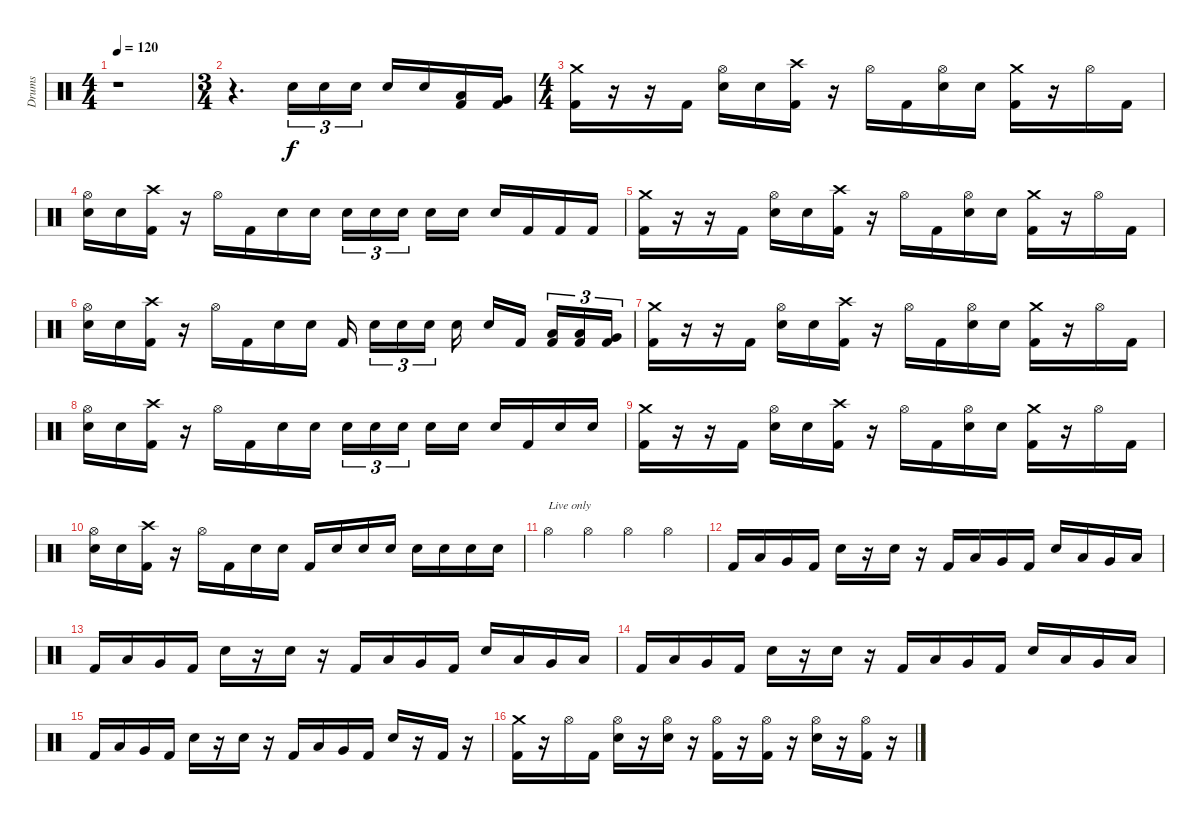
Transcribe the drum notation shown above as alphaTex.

\track ("Drums" "Drums") {instrument percussion}
\staff {score}
\articulation defaults
\ts (4 4)
\tempo 120
\clef neutral
\ks c
r.1{dy f} |
\ts (3 4)
r.4{d} "Electric Snare (hit)".16{tu (3 2)} "Electric Snare (hit)".16{tu (3 2)} "Electric Snare (hit)".16{tu (3 2)} "Electric Snare (hit)".16 "Electric Snare (hit)".16 ("Low Tom (hit)" "Kick (hit) 2").16 ("Very Low Tom (hit)" "Kick (hit) 2").16 |
\ts (4 4)
("Crash medium (hit)" "Kick (hit) 2").16 r.16 r.16 "Kick (hit) 2".16 ("Hi-Hat (open)" "Electric Snare (hit)").16 "Electric Snare (hit)".16 ("Crash high (hit)" "Kick (hit) 2").16 r.16 "Hi-Hat (open)".16 "Kick (hit) 2".16 ("Hi-Hat (open)" "Electric Snare (hit)").16 "Electric Snare (hit)".16 ("Crash medium (hit)" "Kick (hit) 2").16 r.16 "Hi-Hat (open)".16 "Kick (hit) 2".16 |
("Hi-Hat (open)" "Electric Snare (hit)").16 "Electric Snare (hit)".16 ("Crash high (hit)" "Kick (hit) 2").16 r.16 "Hi-Hat (open)".16 "Kick (hit) 2".16 "Electric Snare (hit)".16 "Electric Snare (hit)".16 "Electric Snare (hit)".16{tu (3 2)} "Electric Snare (hit)".16{tu (3 2)} "Electric Snare (hit)".16{tu (3 2)} "Electric Snare (hit)".16 "Electric Snare (hit)".16 "Electric Snare (hit)".16 "Kick (hit) 2".16 "Kick (hit) 2".16 "Kick (hit) 2".16 |
("Crash medium (hit)" "Kick (hit) 2").16 r.16 r.16 "Kick (hit) 2".16 ("Hi-Hat (open)" "Electric Snare (hit)").16 "Electric Snare (hit)".16 ("Crash high (hit)" "Kick (hit) 2").16 r.16 "Hi-Hat (open)".16 "Kick (hit) 2".16 ("Hi-Hat (open)" "Electric Snare (hit)").16 "Electric Snare (hit)".16 ("Crash medium (hit)" "Kick (hit) 2").16 r.16 "Hi-Hat (open)".16 "Kick (hit) 2".16 |
("Hi-Hat (open)" "Electric Snare (hit)").16 "Electric Snare (hit)".16 ("Crash high (hit)" "Kick (hit) 2").16 r.16 "Hi-Hat (open)".16 "Kick (hit) 2".16 "Electric Snare (hit)".16 "Electric Snare (hit)".16 "Kick (hit) 2".16 "Electric Snare (hit)".16{tu (3 2)} "Electric Snare (hit)".16{tu (3 2)} "Electric Snare (hit)".16{tu (3 2)} "Electric Snare (hit)".16 "Electric Snare (hit)".16 "Kick (hit) 2".16 ("Low Tom (hit)" "Kick (hit) 2").16{tu (3 2)} ("Low Tom (hit)" "Kick (hit) 2").16{tu (3 2)} ("Very Low Tom (hit)" "Kick (hit) 2").16{tu (3 2)} |
("Crash medium (hit)" "Kick (hit) 2").16 r.16 r.16 "Kick (hit) 2".16 ("Hi-Hat (open)" "Electric Snare (hit)").16 "Electric Snare (hit)".16 ("Crash high (hit)" "Kick (hit) 2").16 r.16 "Hi-Hat (open)".16 "Kick (hit) 2".16 ("Hi-Hat (open)" "Electric Snare (hit)").16 "Electric Snare (hit)".16 ("Crash medium (hit)" "Kick (hit) 2").16 r.16 "Hi-Hat (open)".16 "Kick (hit) 2".16 |
("Hi-Hat (open)" "Electric Snare (hit)").16 "Electric Snare (hit)".16 ("Crash high (hit)" "Kick (hit) 2").16 r.16 "Hi-Hat (open)".16 "Kick (hit) 2".16 "Electric Snare (hit)".16 "Electric Snare (hit)".16 "Electric Snare (hit)".16{tu (3 2)} "Electric Snare (hit)".16{tu (3 2)} "Electric Snare (hit)".16{tu (3 2)} "Electric Snare (hit)".16 "Electric Snare (hit)".16 "Electric Snare (hit)".16 "Kick (hit) 2".16 "Electric Snare (hit)".16 "Electric Snare (hit)".16 |
("Crash medium (hit)" "Kick (hit) 2").16 r.16 r.16 "Kick (hit) 2".16 ("Hi-Hat (open)" "Electric Snare (hit)").16 "Electric Snare (hit)".16 ("Crash high (hit)" "Kick (hit) 2").16 r.16 "Hi-Hat (open)".16 "Kick (hit) 2".16 ("Hi-Hat (open)" "Electric Snare (hit)").16 "Electric Snare (hit)".16 ("Crash medium (hit)" "Kick (hit) 2").16 r.16 "Hi-Hat (open)".16 "Kick (hit) 2".16 |
("Hi-Hat (open)" "Electric Snare (hit)").16 "Electric Snare (hit)".16 ("Crash high (hit)" "Kick (hit) 2").16 r.16 "Hi-Hat (open)".16 "Kick (hit) 2".16 "Electric Snare (hit)".16 "Electric Snare (hit)".16 "Kick (hit) 2".16 "Electric Snare (hit)".16 "Electric Snare (hit)".16 "Electric Snare (hit)".16 "Electric Snare (hit)".16 "Electric Snare (hit)".16 "Electric Snare (hit)".16 "Electric Snare (hit)".16 |
"Hi-Hat (open)".4{txt "Live only"} "Hi-Hat (open)".4 "Hi-Hat (open)".4 "Hi-Hat (open)".4 |
\section ("" "")
"Kick (hit) 2".16 "Low Tom (hit)".16 "Very Low Tom (hit)".16 "Kick (hit) 2".16 "Electric Snare (hit)".16 r.16 "Electric Snare (hit)".16 r.16 "Kick (hit) 2".16 "Low Tom (hit)".16 "Very Low Tom (hit)".16 "Kick (hit) 2".16 "Electric Snare (hit)".16 "Low Tom (hit)".16 "Very Low Tom (hit)".16 "Low Floor Tom (hit)".16 |
"Kick (hit) 2".16 "Low Tom (hit)".16 "Very Low Tom (hit)".16 "Kick (hit) 2".16 "Electric Snare (hit)".16 r.16 "Electric Snare (hit)".16 r.16 "Kick (hit) 2".16 "Low Tom (hit)".16 "Very Low Tom (hit)".16 "Kick (hit) 2".16 "Electric Snare (hit)".16 "Low Tom (hit)".16 "Very Low Tom (hit)".16 "Low Floor Tom (hit)".16 |
"Kick (hit) 2".16 "Low Tom (hit)".16 "Very Low Tom (hit)".16 "Kick (hit) 2".16 "Electric Snare (hit)".16 r.16 "Electric Snare (hit)".16 r.16 "Kick (hit) 2".16 "Low Tom (hit)".16 "Very Low Tom (hit)".16 "Kick (hit) 2".16 "Electric Snare (hit)".16 "Low Tom (hit)".16 "Very Low Tom (hit)".16 "Low Floor Tom (hit)".16 |
"Kick (hit) 2".16 "Low Tom (hit)".16 "Very Low Tom (hit)".16 "Kick (hit) 2".16 "Electric Snare (hit)".16 r.16 "Electric Snare (hit)".16 r.16 "Kick (hit) 2".16 "Low Tom (hit)".16 "Very Low Tom (hit)".16 "Kick (hit) 2".16 "Electric Snare (hit)".16 r.16 "Kick (hit) 2".16 r.16 |
\section ("" "")
("Crash medium (hit)" "Kick (hit) 2").16 r.16 "Hi-Hat (open)".16 "Kick (hit) 2".16 ("Hi-Hat (open)" "Electric Snare (hit)").16 r.16 ("Hi-Hat (open)" "Electric Snare (hit)").16 r.16 ("Hi-Hat (open)" "Kick (hit) 2").16 r.16 ("Hi-Hat (open)" "Kick (hit) 2").16 r.16 ("Hi-Hat (open)" "Electric Snare (hit)").16 r.16 ("Hi-Hat (open)" "Kick (hit) 2").16 r.16
